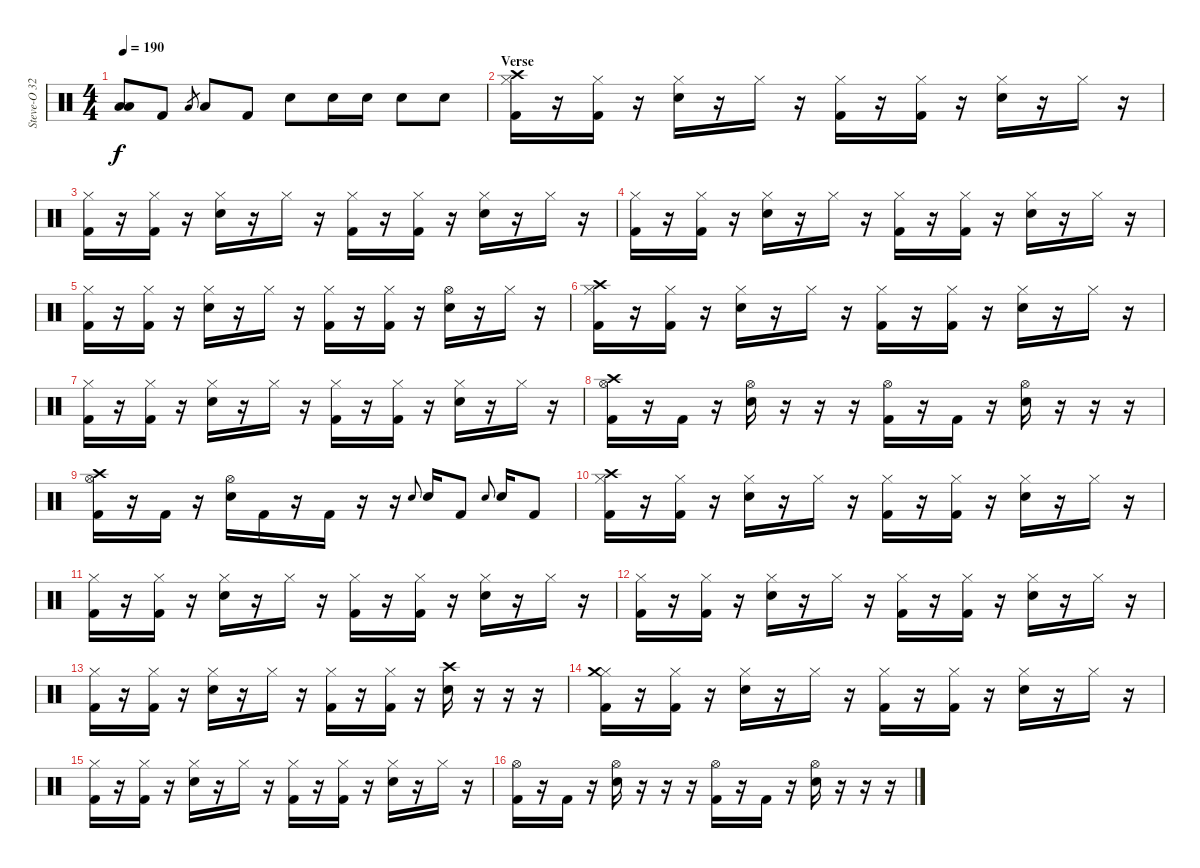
\track ("Steve-O 32 ( Drums )" "Steve-O 32") {instrument percussion}
\staff {score}
\articulation defaults
\ts (4 4)
\tempo 190
\clef neutral
\ks c
("Low Tom (hit)" "Low Floor Tom (hit)").8{dy f} "Kick (hit) 2".8 "Low Floor Tom (hit)".8{gr} "Low Floor Tom (hit)".8 "Kick (hit) 2".8 "Snare (hit) 2".8 "Snare (hit) 2".16 "Snare (hit) 2".16 "Snare (hit) 2".8 "Snare (hit) 2".8 |
\section ("" "Verse")
("Hi-Hat (closed)" "Crash high (hit)" "Kick (hit) 2").16 r.16 ("Hi-Hat (closed)" "Kick (hit) 2").16 r.16 ("Hi-Hat (closed)" "Snare (hit) 2").16 r.16 "Hi-Hat (closed)".16 r.16 ("Hi-Hat (closed)" "Kick (hit) 2").16 r.16 ("Hi-Hat (closed)" "Kick (hit) 2").16 r.16 ("Hi-Hat (closed)" "Snare (hit) 2").16 r.16 "Hi-Hat (closed)".16 r.16 |
("Hi-Hat (closed)" "Kick (hit) 2").16 r.16 ("Hi-Hat (closed)" "Kick (hit) 2").16 r.16 ("Hi-Hat (closed)" "Snare (hit) 2").16 r.16 "Hi-Hat (closed)".16 r.16 ("Hi-Hat (closed)" "Kick (hit) 2").16 r.16 ("Hi-Hat (closed)" "Kick (hit) 2").16 r.16 ("Hi-Hat (closed)" "Snare (hit) 2").16 r.16 "Hi-Hat (closed)".16 r.16 |
("Hi-Hat (closed)" "Kick (hit) 2").16 r.16 ("Hi-Hat (closed)" "Kick (hit) 2").16 r.16 ("Hi-Hat (closed)" "Snare (hit) 2").16 r.16 "Hi-Hat (closed)".16 r.16 ("Hi-Hat (closed)" "Kick (hit) 2").16 r.16 ("Hi-Hat (closed)" "Kick (hit) 2").16 r.16 ("Hi-Hat (closed)" "Snare (hit) 2").16 r.16 "Hi-Hat (closed)".16 r.16 |
("Hi-Hat (closed)" "Kick (hit) 2").16 r.16 ("Hi-Hat (closed)" "Kick (hit) 2").16 r.16 ("Hi-Hat (closed)" "Snare (hit) 2").16 r.16 "Hi-Hat (closed)".16 r.16 ("Hi-Hat (closed)" "Kick (hit) 2").16 r.16 ("Hi-Hat (closed)" "Kick (hit) 2").16 r.16 ("Hi-Hat (open)" "Snare (hit) 2").16 r.16 "Hi-Hat (closed)".16 r.16 |
("Hi-Hat (closed)" "Crash high (hit)" "Kick (hit) 2").16 r.16 ("Hi-Hat (closed)" "Kick (hit) 2").16 r.16 ("Hi-Hat (closed)" "Snare (hit) 2").16 r.16 "Hi-Hat (closed)".16 r.16 ("Hi-Hat (closed)" "Kick (hit) 2").16 r.16 ("Hi-Hat (closed)" "Kick (hit) 2").16 r.16 ("Hi-Hat (closed)" "Snare (hit) 2").16 r.16 "Hi-Hat (closed)".16 r.16 |
("Hi-Hat (closed)" "Kick (hit) 2").16 r.16 ("Hi-Hat (closed)" "Kick (hit) 2").16 r.16 ("Hi-Hat (closed)" "Snare (hit) 2").16 r.16 "Hi-Hat (closed)".16 r.16 ("Hi-Hat (closed)" "Kick (hit) 2").16 r.16 ("Hi-Hat (closed)" "Kick (hit) 2").16 r.16 ("Hi-Hat (closed)" "Snare (hit) 2").16 r.16 "Hi-Hat (closed)".16 r.16 |
("Hi-Hat (open)" "Crash high (hit)" "Kick (hit) 2").16 r.16 "Kick (hit) 2".16 r.16 ("Hi-Hat (open)" "Snare (hit) 2").16 r.16 r.16 r.16 ("Hi-Hat (open)" "Kick (hit) 2").16 r.16 "Kick (hit) 2".16 r.16 ("Hi-Hat (open)" "Snare (hit) 2").16 r.16 r.16 r.16 |
("Hi-Hat (open)" "Crash high (hit)" "Kick (hit) 2").16 r.16 "Kick (hit) 2".16 r.16 ("Hi-Hat (open)" "Snare (hit) 2").16 "Kick (hit) 2".16 r.16 "Kick (hit) 2".16 r.16 r.16 "Snare (hit) 2".8{gr onbeat} "Snare (hit) 2".16 "Kick (hit) 2".8 "Snare (hit) 2".8{gr onbeat} "Snare (hit) 2".16 "Kick (hit) 2".8 |
("Hi-Hat (closed)" "Crash high (hit)" "Kick (hit) 2").16 r.16 ("Hi-Hat (closed)" "Kick (hit) 2").16 r.16 ("Hi-Hat (closed)" "Snare (hit) 2").16 r.16 "Hi-Hat (closed)".16 r.16 ("Hi-Hat (closed)" "Kick (hit) 2").16 r.16 ("Hi-Hat (closed)" "Kick (hit) 2").16 r.16 ("Hi-Hat (closed)" "Snare (hit) 2").16 r.16 "Hi-Hat (closed)".16 r.16 |
("Hi-Hat (closed)" "Kick (hit) 2").16 r.16 ("Hi-Hat (closed)" "Kick (hit) 2").16 r.16 ("Hi-Hat (closed)" "Snare (hit) 2").16 r.16 "Hi-Hat (closed)".16 r.16 ("Hi-Hat (closed)" "Kick (hit) 2").16 r.16 ("Hi-Hat (closed)" "Kick (hit) 2").16 r.16 ("Hi-Hat (closed)" "Snare (hit) 2").16 r.16 "Hi-Hat (closed)".16 r.16 |
("Hi-Hat (closed)" "Kick (hit) 2").16 r.16 ("Hi-Hat (closed)" "Kick (hit) 2").16 r.16 ("Hi-Hat (closed)" "Snare (hit) 2").16 r.16 "Hi-Hat (closed)".16 r.16 ("Hi-Hat (closed)" "Kick (hit) 2").16 r.16 ("Hi-Hat (closed)" "Kick (hit) 2").16 r.16 ("Hi-Hat (closed)" "Snare (hit) 2").16 r.16 "Hi-Hat (closed)".16 r.16 |
("Hi-Hat (closed)" "Kick (hit) 2").16 r.16 ("Hi-Hat (closed)" "Kick (hit) 2").16 r.16 ("Hi-Hat (closed)" "Snare (hit) 2").16 r.16 "Hi-Hat (closed)".16 r.16 ("Hi-Hat (closed)" "Kick (hit) 2").16 r.16 ("Hi-Hat (closed)" "Kick (hit) 2").16 r.16 ("Crash high (hit)" "Snare (hit) 2").16 r.16 r.16 r.16 |
("Hi-Hat (closed)" "Crash medium (hit)" "Kick (hit) 2").16 r.16 ("Hi-Hat (closed)" "Kick (hit) 2").16 r.16 ("Hi-Hat (closed)" "Snare (hit) 2").16 r.16 "Hi-Hat (closed)".16 r.16 ("Hi-Hat (closed)" "Kick (hit) 2").16 r.16 ("Hi-Hat (closed)" "Kick (hit) 2").16 r.16 ("Hi-Hat (closed)" "Snare (hit) 2").16 r.16 "Hi-Hat (closed)".16 r.16 |
("Hi-Hat (closed)" "Kick (hit) 2").16 r.16 ("Hi-Hat (closed)" "Kick (hit) 2").16 r.16 ("Hi-Hat (closed)" "Snare (hit) 2").16 r.16 "Hi-Hat (closed)".16 r.16 ("Hi-Hat (closed)" "Kick (hit) 2").16 r.16 ("Hi-Hat (closed)" "Kick (hit) 2").16 r.16 ("Hi-Hat (closed)" "Snare (hit) 2").16 r.16 "Hi-Hat (closed)".16 r.16 |
("Hi-Hat (open)" "Kick (hit) 2").16 r.16 "Kick (hit) 2".16 r.16 ("Hi-Hat (open)" "Snare (hit) 2").16 r.16 r.16 r.16 ("Hi-Hat (open)" "Kick (hit) 2").16 r.16 "Kick (hit) 2".16 r.16 ("Hi-Hat (open)" "Snare (hit) 2").16 r.16 r.16 r.16
